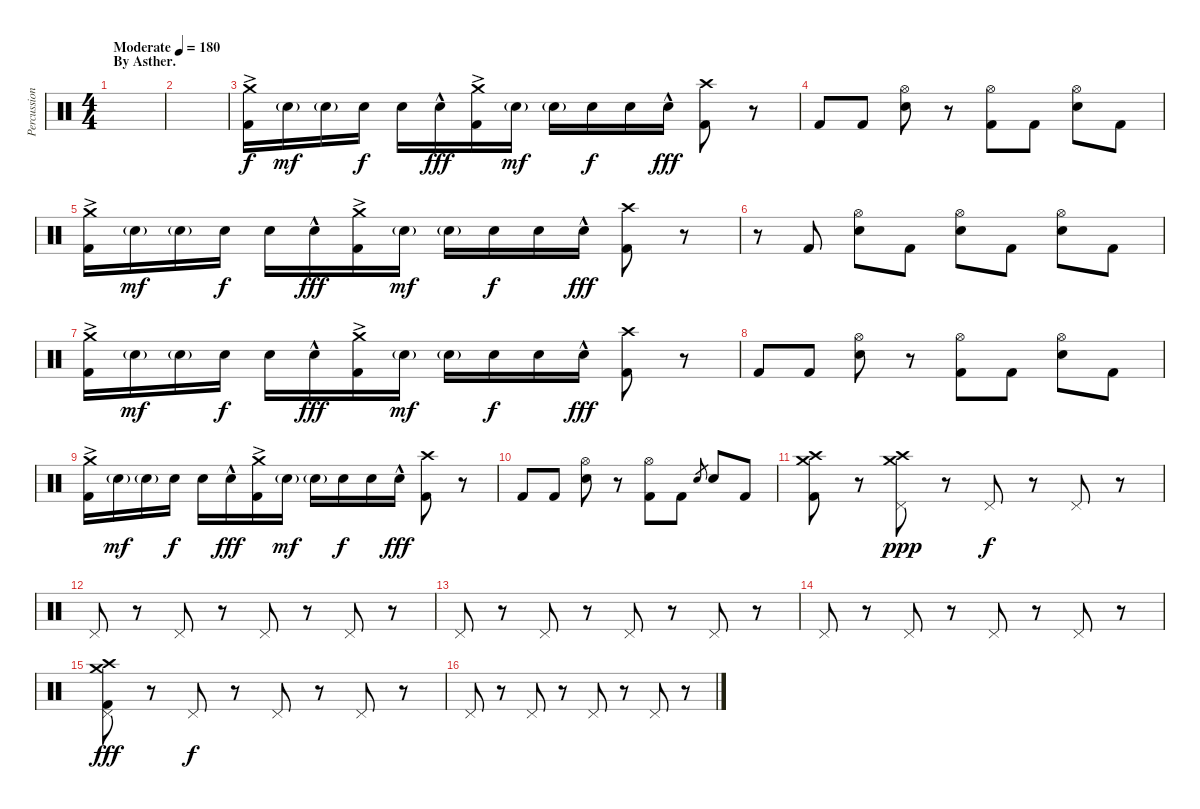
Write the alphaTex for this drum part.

\track ("Percussions" "Percussion") {mute instrument percussion}
\staff {score}
\articulation defaults
\ts (4 4)
\section ("" "By Asther. ")
\tempo (180 "Moderate")
\clef neutral
\ks c
|
|
("Crash medium (hit)"{ac} "Kick (hit) 2").16 "Electric Snare (hit)"{g}.16{dy mf} "Electric Snare (hit)"{g}.16 "Electric Snare (hit)".16{dy f} "Electric Snare (hit)".16 "Electric Snare (hit)"{hac}.16{dy fff} ("Crash medium (hit)"{ac} "Kick (hit) 2").16 "Electric Snare (hit)"{g}.16{dy mf} "Electric Snare (hit)"{g}.16 "Electric Snare (hit)".16{dy f} "Electric Snare (hit)".16 "Electric Snare (hit)"{hac}.16{dy fff} ("Crash high (hit)" "Kick (hit) 2").8 r.8 |
"Kick (hit) 2".8 "Kick (hit) 2".8 ("Hi-Hat (open)" "Electric Snare (hit)").8 r.8 ("Hi-Hat (open)" "Kick (hit) 2").8 "Kick (hit) 2".8 ("Hi-Hat (open)" "Electric Snare (hit)").8 "Kick (hit) 2".8 |
("Crash medium (hit)"{ac} "Kick (hit) 2").16 "Electric Snare (hit)"{g}.16{dy mf} "Electric Snare (hit)"{g}.16 "Electric Snare (hit)".16{dy f} "Electric Snare (hit)".16 "Electric Snare (hit)"{hac}.16{dy fff} ("Crash medium (hit)"{ac} "Kick (hit) 2").16 "Electric Snare (hit)"{g}.16{dy mf} "Electric Snare (hit)"{g}.16 "Electric Snare (hit)".16{dy f} "Electric Snare (hit)".16 "Electric Snare (hit)"{hac}.16{dy fff} ("Crash high (hit)" "Kick (hit) 2").8 r.8 |
r.8 "Kick (hit) 2".8 ("Hi-Hat (open)" "Electric Snare (hit)").8 "Kick (hit) 2".8 ("Hi-Hat (open)" "Electric Snare (hit)").8 "Kick (hit) 2".8 ("Hi-Hat (open)" "Electric Snare (hit)").8 "Kick (hit) 2".8 |
("Crash medium (hit)"{ac} "Kick (hit) 2").16 "Electric Snare (hit)"{g}.16{dy mf} "Electric Snare (hit)"{g}.16 "Electric Snare (hit)".16{dy f} "Electric Snare (hit)".16 "Electric Snare (hit)"{hac}.16{dy fff} ("Crash medium (hit)"{ac} "Kick (hit) 2").16 "Electric Snare (hit)"{g}.16{dy mf} "Electric Snare (hit)"{g}.16 "Electric Snare (hit)".16{dy f} "Electric Snare (hit)".16 "Electric Snare (hit)"{hac}.16{dy fff} ("Crash high (hit)" "Kick (hit) 2").8 r.8 |
"Kick (hit) 2".8 "Kick (hit) 2".8 ("Hi-Hat (open)" "Electric Snare (hit)").8 r.8 ("Hi-Hat (open)" "Kick (hit) 2").8 "Kick (hit) 2".8 ("Hi-Hat (open)" "Electric Snare (hit)").8 "Kick (hit) 2".8 |
("Crash medium (hit)"{ac} "Kick (hit) 2").16 "Electric Snare (hit)"{g}.16{dy mf} "Electric Snare (hit)"{g}.16 "Electric Snare (hit)".16{dy f} "Electric Snare (hit)".16 "Electric Snare (hit)"{hac}.16{dy fff} ("Crash medium (hit)"{ac} "Kick (hit) 2").16 "Electric Snare (hit)"{g}.16{dy mf} "Electric Snare (hit)"{g}.16 "Electric Snare (hit)".16{dy f} "Electric Snare (hit)".16 "Electric Snare (hit)"{hac}.16{dy fff} ("Crash high (hit)" "Kick (hit) 2").8 r.8 |
"Kick (hit) 2".8 "Kick (hit) 2".8 ("Hi-Hat (open)" "Electric Snare (hit)").8 r.8 ("Hi-Hat (open)" "Kick (hit) 2").8 "Kick (hit) 2".8 "Electric Snare (hit)".8{gr} "Electric Snare (hit)".8 "Kick (hit) 2".8 |
("Crash medium (hit)" "Crash high (hit)" "Kick (hit) 2").8 r.8 ("Crash medium (hit)" "Crash high (hit)" "Pedal Hi-Hat (hit)").8{dy ppp} r.8 "Pedal Hi-Hat (hit)".8{dy f} r.8 "Pedal Hi-Hat (hit)".8 r.8 |
"Pedal Hi-Hat (hit)".8 r.8 "Pedal Hi-Hat (hit)".8 r.8 "Pedal Hi-Hat (hit)".8 r.8 "Pedal Hi-Hat (hit)".8 r.8 |
"Pedal Hi-Hat (hit)".8 r.8 "Pedal Hi-Hat (hit)".8 r.8 "Pedal Hi-Hat (hit)".8 r.8 "Pedal Hi-Hat (hit)".8 r.8 |
"Pedal Hi-Hat (hit)".8 r.8 "Pedal Hi-Hat (hit)".8 r.8 "Pedal Hi-Hat (hit)".8 r.8 "Pedal Hi-Hat (hit)".8 r.8 |
("Crash medium (hit)" "Crash high (hit)" "Pedal Hi-Hat (hit)" "Kick (hit) 2").8{dy fff} r.8 "Pedal Hi-Hat (hit)".8{dy f} r.8 "Pedal Hi-Hat (hit)".8 r.8 "Pedal Hi-Hat (hit)".8 r.8 |
"Pedal Hi-Hat (hit)".8 r.8 "Pedal Hi-Hat (hit)".8 r.8 "Pedal Hi-Hat (hit)".8 r.8 "Pedal Hi-Hat (hit)".8 r.8
